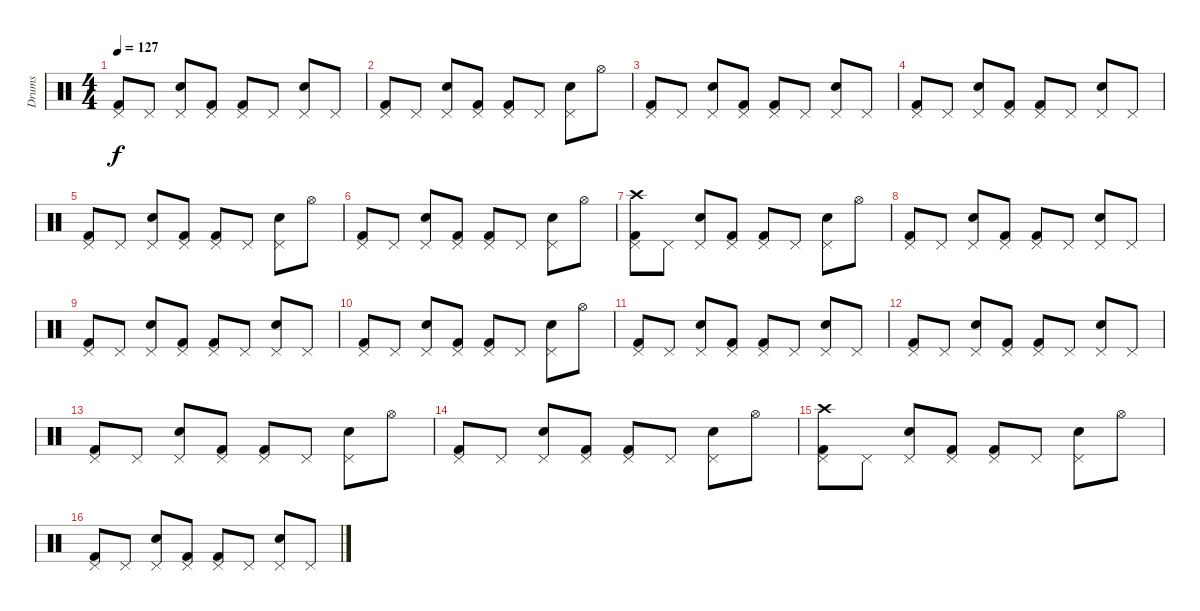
\track ("Drums" "Drums") {instrument percussion}
\staff {score}
\articulation defaults
\ts (4 4)
\tempo 127
\clef neutral
\ks c
("Pedal Hi-Hat (hit)" "Kick (hit) 2").8{dy f} "Pedal Hi-Hat (hit)".8 ("Pedal Hi-Hat (hit)" "Snare (hit) 2").8 ("Pedal Hi-Hat (hit)" "Kick (hit) 2").8 ("Pedal Hi-Hat (hit)" "Kick (hit) 2").8 "Pedal Hi-Hat (hit)".8 ("Pedal Hi-Hat (hit)" "Snare (hit) 2").8 "Pedal Hi-Hat (hit)".8 |
("Pedal Hi-Hat (hit)" "Kick (hit) 2").8 "Pedal Hi-Hat (hit)".8 ("Pedal Hi-Hat (hit)" "Snare (hit) 2").8 ("Pedal Hi-Hat (hit)" "Kick (hit) 2").8 ("Pedal Hi-Hat (hit)" "Kick (hit) 2").8 "Pedal Hi-Hat (hit)".8 ("Pedal Hi-Hat (hit)" "Snare (hit) 2").8 "Hi-Hat (open)".8 |
("Pedal Hi-Hat (hit)" "Kick (hit) 2").8 "Pedal Hi-Hat (hit)".8 ("Pedal Hi-Hat (hit)" "Snare (hit) 2").8 ("Pedal Hi-Hat (hit)" "Kick (hit) 2").8 ("Pedal Hi-Hat (hit)" "Kick (hit) 2").8 "Pedal Hi-Hat (hit)".8 ("Pedal Hi-Hat (hit)" "Snare (hit) 2").8 "Pedal Hi-Hat (hit)".8 |
("Pedal Hi-Hat (hit)" "Kick (hit) 2").8 "Pedal Hi-Hat (hit)".8 ("Pedal Hi-Hat (hit)" "Snare (hit) 2").8 ("Pedal Hi-Hat (hit)" "Kick (hit) 2").8 ("Pedal Hi-Hat (hit)" "Kick (hit) 2").8 "Pedal Hi-Hat (hit)".8 ("Pedal Hi-Hat (hit)" "Snare (hit) 2").8 "Pedal Hi-Hat (hit)".8 |
("Pedal Hi-Hat (hit)" "Kick (hit) 2").8 "Pedal Hi-Hat (hit)".8 ("Pedal Hi-Hat (hit)" "Snare (hit) 2").8 ("Pedal Hi-Hat (hit)" "Kick (hit) 2").8 ("Pedal Hi-Hat (hit)" "Kick (hit) 2").8 "Pedal Hi-Hat (hit)".8 ("Pedal Hi-Hat (hit)" "Snare (hit) 2").8 "Hi-Hat (open)".8 |
("Pedal Hi-Hat (hit)" "Kick (hit) 2").8 "Pedal Hi-Hat (hit)".8 ("Pedal Hi-Hat (hit)" "Snare (hit) 2").8 ("Pedal Hi-Hat (hit)" "Kick (hit) 2").8 ("Pedal Hi-Hat (hit)" "Kick (hit) 2").8 "Pedal Hi-Hat (hit)".8 ("Pedal Hi-Hat (hit)" "Snare (hit) 2").8 "Hi-Hat (open)".8 |
("Crash high (hit)" "Pedal Hi-Hat (hit)" "Kick (hit) 2").8 "Pedal Hi-Hat (hit)".8 ("Pedal Hi-Hat (hit)" "Snare (hit) 2").8 ("Pedal Hi-Hat (hit)" "Kick (hit) 2").8 ("Pedal Hi-Hat (hit)" "Kick (hit) 2").8 "Pedal Hi-Hat (hit)".8 ("Pedal Hi-Hat (hit)" "Snare (hit) 2").8 "Hi-Hat (open)".8 |
("Pedal Hi-Hat (hit)" "Kick (hit) 2").8 "Pedal Hi-Hat (hit)".8 ("Pedal Hi-Hat (hit)" "Snare (hit) 2").8 ("Pedal Hi-Hat (hit)" "Kick (hit) 2").8 ("Pedal Hi-Hat (hit)" "Kick (hit) 2").8 "Pedal Hi-Hat (hit)".8 ("Pedal Hi-Hat (hit)" "Snare (hit) 2").8 "Pedal Hi-Hat (hit)".8 |
("Pedal Hi-Hat (hit)" "Kick (hit) 2").8 "Pedal Hi-Hat (hit)".8 ("Pedal Hi-Hat (hit)" "Snare (hit) 2").8 ("Pedal Hi-Hat (hit)" "Kick (hit) 2").8 ("Pedal Hi-Hat (hit)" "Kick (hit) 2").8 "Pedal Hi-Hat (hit)".8 ("Pedal Hi-Hat (hit)" "Snare (hit) 2").8 "Pedal Hi-Hat (hit)".8 |
("Pedal Hi-Hat (hit)" "Kick (hit) 2").8 "Pedal Hi-Hat (hit)".8 ("Pedal Hi-Hat (hit)" "Snare (hit) 2").8 ("Pedal Hi-Hat (hit)" "Kick (hit) 2").8 ("Pedal Hi-Hat (hit)" "Kick (hit) 2").8 "Pedal Hi-Hat (hit)".8 ("Pedal Hi-Hat (hit)" "Snare (hit) 2").8 "Hi-Hat (open)".8 |
("Pedal Hi-Hat (hit)" "Kick (hit) 2").8 "Pedal Hi-Hat (hit)".8 ("Pedal Hi-Hat (hit)" "Snare (hit) 2").8 ("Pedal Hi-Hat (hit)" "Kick (hit) 2").8 ("Pedal Hi-Hat (hit)" "Kick (hit) 2").8 "Pedal Hi-Hat (hit)".8 ("Pedal Hi-Hat (hit)" "Snare (hit) 2").8 "Pedal Hi-Hat (hit)".8 |
("Pedal Hi-Hat (hit)" "Kick (hit) 2").8 "Pedal Hi-Hat (hit)".8 ("Pedal Hi-Hat (hit)" "Snare (hit) 2").8 ("Pedal Hi-Hat (hit)" "Kick (hit) 2").8 ("Pedal Hi-Hat (hit)" "Kick (hit) 2").8 "Pedal Hi-Hat (hit)".8 ("Pedal Hi-Hat (hit)" "Snare (hit) 2").8 "Pedal Hi-Hat (hit)".8 |
("Pedal Hi-Hat (hit)" "Kick (hit) 2").8 "Pedal Hi-Hat (hit)".8 ("Pedal Hi-Hat (hit)" "Snare (hit) 2").8 ("Pedal Hi-Hat (hit)" "Kick (hit) 2").8 ("Pedal Hi-Hat (hit)" "Kick (hit) 2").8 "Pedal Hi-Hat (hit)".8 ("Pedal Hi-Hat (hit)" "Snare (hit) 2").8 "Hi-Hat (open)".8 |
("Pedal Hi-Hat (hit)" "Kick (hit) 2").8 "Pedal Hi-Hat (hit)".8 ("Pedal Hi-Hat (hit)" "Snare (hit) 2").8 ("Pedal Hi-Hat (hit)" "Kick (hit) 2").8 ("Pedal Hi-Hat (hit)" "Kick (hit) 2").8 "Pedal Hi-Hat (hit)".8 ("Pedal Hi-Hat (hit)" "Snare (hit) 2").8 "Hi-Hat (open)".8 |
("Crash high (hit)" "Pedal Hi-Hat (hit)" "Kick (hit) 2").8 "Pedal Hi-Hat (hit)".8 ("Pedal Hi-Hat (hit)" "Snare (hit) 2").8 ("Pedal Hi-Hat (hit)" "Kick (hit) 2").8 ("Pedal Hi-Hat (hit)" "Kick (hit) 2").8 "Pedal Hi-Hat (hit)".8 ("Pedal Hi-Hat (hit)" "Snare (hit) 2").8 "Hi-Hat (open)".8 |
("Pedal Hi-Hat (hit)" "Kick (hit) 2").8 "Pedal Hi-Hat (hit)".8 ("Pedal Hi-Hat (hit)" "Snare (hit) 2").8 ("Pedal Hi-Hat (hit)" "Kick (hit) 2").8 ("Pedal Hi-Hat (hit)" "Kick (hit) 2").8 "Pedal Hi-Hat (hit)".8 ("Pedal Hi-Hat (hit)" "Snare (hit) 2").8 "Pedal Hi-Hat (hit)".8
